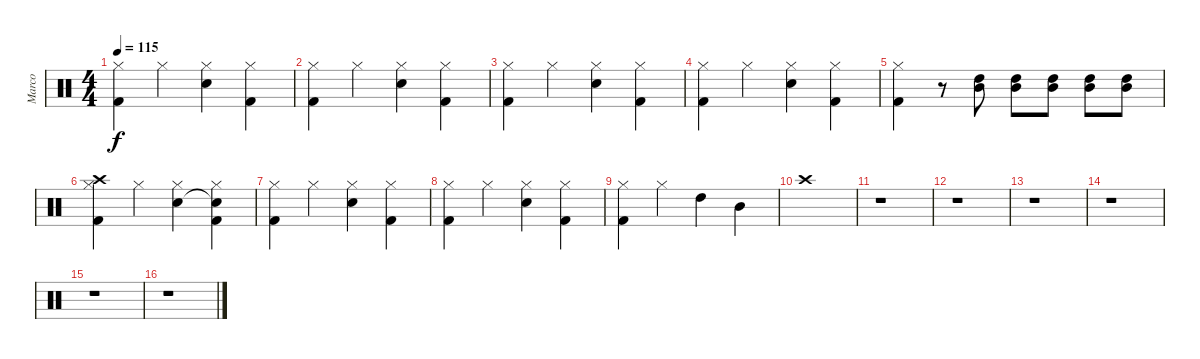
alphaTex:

\track ("Marco" "Marco") {instrument percussion}
\staff {score}
\articulation defaults
\ts (4 4)
\tempo 115
\clef neutral
\ks c
("Hi-Hat (closed)" "Kick (hit) 2").4{dy f} "Hi-Hat (closed)".4 ("Hi-Hat (closed)" "Snare (hit) 2").4 ("Hi-Hat (closed)" "Kick (hit) 2").4 |
("Hi-Hat (closed)" "Kick (hit) 2").4 "Hi-Hat (closed)".4 ("Hi-Hat (closed)" "Snare (hit) 2").4 ("Hi-Hat (closed)" "Kick (hit) 2").4 |
("Hi-Hat (closed)" "Kick (hit) 2").4 "Hi-Hat (closed)".4 ("Hi-Hat (closed)" "Snare (hit) 2").4 ("Hi-Hat (closed)" "Kick (hit) 2").4 |
("Hi-Hat (closed)" "Kick (hit) 2").4 "Hi-Hat (closed)".4 ("Hi-Hat (closed)" "Snare (hit) 2").4 ("Hi-Hat (closed)" "Kick (hit) 2").4 |
("Hi-Hat (closed)" "Kick (hit) 2").4 r.8{volume 6} ("Mid Tom (hit)" "High Tom (hit)").8{volume 14} ("Mid Tom (hit)" "High Tom (hit)").8 ("Mid Tom (hit)" "High Tom (hit)").8 ("Mid Tom (hit)" "High Tom (hit)").8 ("Mid Tom (hit)" "High Tom (hit)").8 |
("Hi-Hat (closed)" "Crash high (hit)" "Kick (hit) 2").4 "Hi-Hat (closed)".4 ("Hi-Hat (closed)" "Snare (hit) 2").4 ("Hi-Hat (closed)" "Snare (hit)"{t} "Kick (hit) 2").4 |
("Hi-Hat (closed)" "Kick (hit) 2").4 "Hi-Hat (closed)".4 ("Hi-Hat (closed)" "Snare (hit) 2").4 ("Hi-Hat (closed)" "Kick (hit) 2").4 |
("Hi-Hat (closed)" "Kick (hit) 2").4 "Hi-Hat (closed)".4 ("Hi-Hat (closed)" "Snare (hit) 2").4 ("Hi-Hat (closed)" "Kick (hit) 2").4 |
("Hi-Hat (closed)" "Kick (hit) 2").4 "Hi-Hat (closed)".4 "High Tom (hit)".4 "Mid Tom (hit)".4 |
"Crash high (hit)".1 |
r.1 |
r.1 |
r.1 |
r.1 |
r.1 |
r.1
